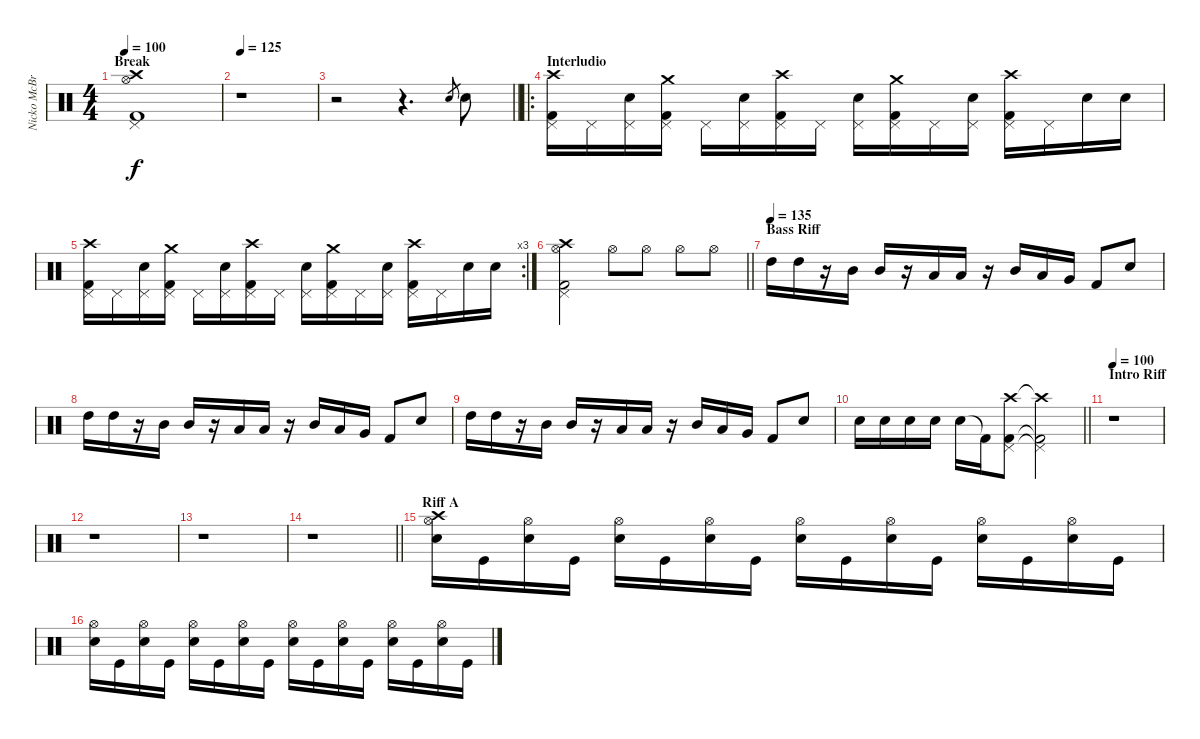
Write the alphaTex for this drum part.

\track ("Nicko McBrain" "Nicko McBr") {instrument percussion}
\staff {score}
\articulation defaults
\ts (4 4)
\section ("" "Break")
\tempo 100
\clef neutral
\ks c
("Kick (hit) 2" "Pedal Hi-Hat (hit)" "Hi-Hat (open)" "Crash high (hit)").1{dy f} |
\tempo 125
r.1 |
\barLineRight lightlight
r.2 r.4{d} "Snare (hit) 2".8{gr} "Snare (hit) 2".8 |
\ro
\section ("" "Interludio")
("Kick (hit) 2" "Pedal Hi-Hat (hit)" "Crash high (hit)").16 "Pedal Hi-Hat (hit)".16 ("Snare (hit) 2" "Pedal Hi-Hat (hit)").16 ("Kick (hit) 2" "Pedal Hi-Hat (hit)" "Crash medium (hit)").16 "Pedal Hi-Hat (hit)".16 ("Snare (hit) 2" "Pedal Hi-Hat (hit)").16 ("Kick (hit) 2" "Pedal Hi-Hat (hit)" "Crash high (hit)").16 "Pedal Hi-Hat (hit)".16 ("Snare (hit) 2" "Pedal Hi-Hat (hit)").16 ("Kick (hit) 2" "Pedal Hi-Hat (hit)" "Crash medium (hit)").16 "Pedal Hi-Hat (hit)".16 ("Snare (hit) 2" "Pedal Hi-Hat (hit)").16 ("Kick (hit) 2" "Pedal Hi-Hat (hit)" "Crash high (hit)").16 "Pedal Hi-Hat (hit)".16 "Snare (hit) 2".16 "Snare (hit) 2".16 |
\rc 3
("Kick (hit) 2" "Pedal Hi-Hat (hit)" "Crash high (hit)").16 "Pedal Hi-Hat (hit)".16 ("Snare (hit) 2" "Pedal Hi-Hat (hit)").16 ("Kick (hit) 2" "Pedal Hi-Hat (hit)" "Crash medium (hit)").16 "Pedal Hi-Hat (hit)".16 ("Snare (hit) 2" "Pedal Hi-Hat (hit)").16 ("Kick (hit) 2" "Pedal Hi-Hat (hit)" "Crash high (hit)").16 "Pedal Hi-Hat (hit)".16 ("Snare (hit) 2" "Pedal Hi-Hat (hit)").16 ("Kick (hit) 2" "Pedal Hi-Hat (hit)" "Crash medium (hit)").16 "Pedal Hi-Hat (hit)".16 ("Snare (hit) 2" "Pedal Hi-Hat (hit)").16 ("Kick (hit) 2" "Pedal Hi-Hat (hit)" "Crash high (hit)").16 "Pedal Hi-Hat (hit)".16 "Snare (hit) 2".16 "Snare (hit) 2".16 |
\barLineRight lightlight
("Kick (hit) 2" "Pedal Hi-Hat (hit)" "Hi-Hat (open)" "Crash high (hit)").2 "Hi-Hat (open)".8 "Hi-Hat (open)".8 "Hi-Hat (open)".8 "Hi-Hat (open)".8 |
\section ("" "Bass Riff")
\tempo (135)
"High Tom (hit)".16 "High Tom (hit)".16 r.16 "Mid Tom (hit)".16 "Mid Tom (hit)".16 r.16 "Low Tom (hit)".16 "Low Tom (hit)".16 r.16 "Mid Tom (hit)".16 "Low Tom (hit)".16 "Very Low Tom (hit)".16 "Kick (hit) 2".8 "Snare (hit) 2".8 |
"High Tom (hit)".16 "High Tom (hit)".16 r.16 "Mid Tom (hit)".16 "Mid Tom (hit)".16 r.16 "Low Tom (hit)".16 "Low Tom (hit)".16 r.16 "Mid Tom (hit)".16 "Low Tom (hit)".16 "Very Low Tom (hit)".16 "Kick (hit) 2".8 "Snare (hit) 2".8 |
"High Tom (hit)".16 "High Tom (hit)".16 r.16 "Mid Tom (hit)".16 "Mid Tom (hit)".16 r.16 "Low Tom (hit)".16 "Low Tom (hit)".16 r.16 "Mid Tom (hit)".16 "Low Tom (hit)".16 "Very Low Tom (hit)".16 "Kick (hit) 2".8 "Snare (hit) 2".8 |
\barLineRight lightlight "Snare (hit) 2".16 "Snare (hit) 2".16 "Snare (hit) 2".16 "Snare (hit) 2".16 "Snare (hit) 2".16 "Kick (hit) 2"{t}.16
("Kick (hit) 2" "Pedal Hi-Hat (hit)" "Crash high (hit)").8 ("Kick (hit) 2"{t} "Pedal Hi-Hat (hit)"{t} "Crash high (hit)"{t}).2 |
\section ("" "Intro Riff")
\tempo 100
r.1 |
r.1 |
r.1 |
\barLineRight lightlight
r.1 |
\section ("" "Riff A")
("Snare (hit) 2" "Hi-Hat (open)" "Crash high (hit)").16 "Kick (hit)".16 ("Snare (hit) 2" "Hi-Hat (open)").16 "Kick (hit)".16 ("Snare (hit) 2" "Hi-Hat (open)").16 "Kick (hit)".16 ("Snare (hit) 2" "Hi-Hat (open)").16 "Kick (hit)".16 ("Snare (hit) 2" "Hi-Hat (open)").16 "Kick (hit)".16 ("Snare (hit) 2" "Hi-Hat (open)").16 "Kick (hit)".16 ("Snare (hit) 2" "Hi-Hat (open)").16 "Kick (hit)".16 ("Snare (hit) 2" "Hi-Hat (open)").16 "Kick (hit)".16 |
("Snare (hit) 2" "Hi-Hat (open)").16 "Kick (hit)".16 ("Snare (hit) 2" "Hi-Hat (open)").16 "Kick (hit)".16 ("Snare (hit) 2" "Hi-Hat (open)").16 "Kick (hit)".16 ("Snare (hit) 2" "Hi-Hat (open)").16 "Kick (hit)".16 ("Snare (hit) 2" "Hi-Hat (open)").16 "Kick (hit)".16 ("Snare (hit) 2" "Hi-Hat (open)").16 "Kick (hit)".16 ("Snare (hit) 2" "Hi-Hat (open)").16 "Kick (hit)".16 ("Snare (hit) 2" "Hi-Hat (open)").16 "Kick (hit)".16
